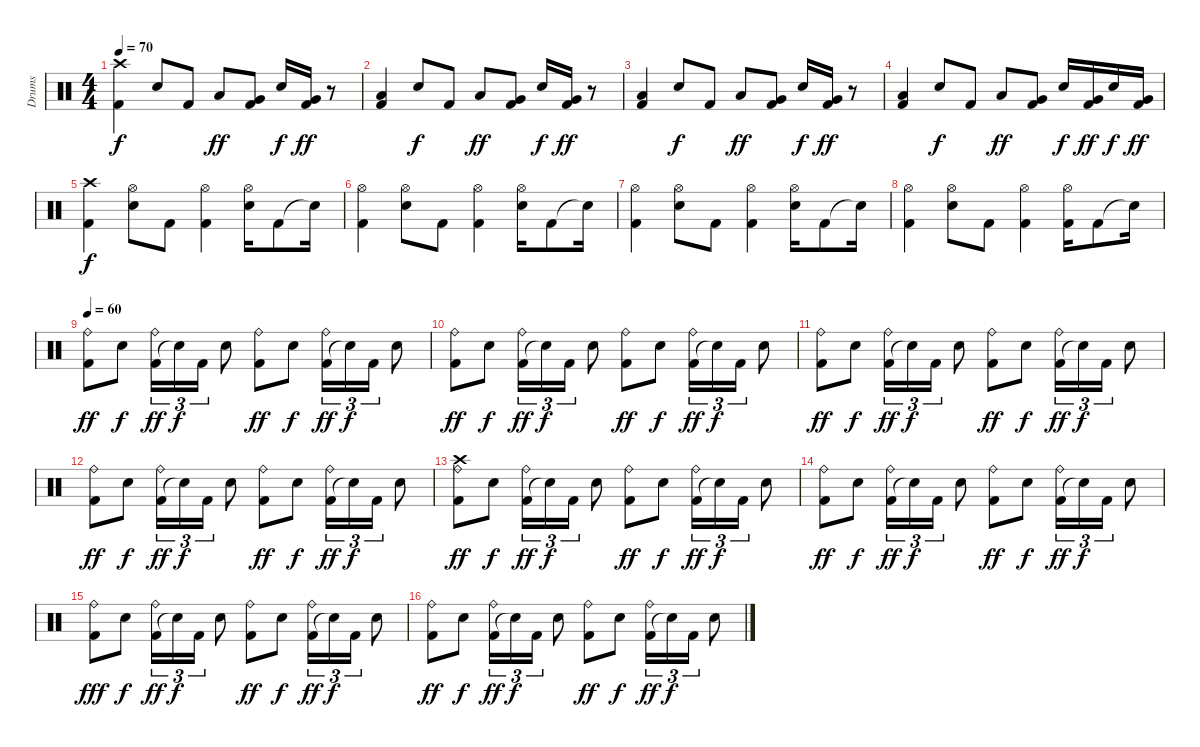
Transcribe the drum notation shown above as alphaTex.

\track ("Drums" "Drums") {instrument percussion}
\staff {score}
\articulation defaults
\ts (4 4)
\tempo 70
\clef neutral
\ks c
("Kick (hit) 2" "Crash high (hit)").4{dy f} "Electric Snare (hit)".8 "Kick (hit) 2".8 "Low Tom (hit)".8{dy ff} ("Kick (hit) 2" "Very Low Tom (hit)").8 "Electric Snare (hit)".16{dy f} ("Kick (hit) 2" "Very Low Tom (hit)").16{dy ff} r.8 |
("Kick (hit) 2" "Low Tom (hit)").4 "Electric Snare (hit)".8{dy f} "Kick (hit) 2".8 "Low Tom (hit)".8{dy ff} ("Kick (hit) 2" "Very Low Tom (hit)").8 "Electric Snare (hit)".16{dy f} ("Kick (hit) 2" "Very Low Tom (hit)").16{dy ff} r.8 |
("Kick (hit) 2" "Low Tom (hit)").4 "Electric Snare (hit)".8{dy f} "Kick (hit) 2".8 "Low Tom (hit)".8{dy ff} ("Kick (hit) 2" "Very Low Tom (hit)").8 "Electric Snare (hit)".16{dy f} ("Kick (hit) 2" "Very Low Tom (hit)").16{dy ff} r.8 |
("Kick (hit) 2" "Low Tom (hit)").4 "Electric Snare (hit)".8{dy f} "Kick (hit) 2".8 "Low Tom (hit)".8{dy ff} ("Kick (hit) 2" "Very Low Tom (hit)").8 "Electric Snare (hit)".16{dy f} ("Kick (hit) 2" "Very Low Tom (hit)").16{dy ff} "Electric Snare (hit)".16{dy f} ("Kick (hit) 2" "Very Low Tom (hit)").16{dy ff} |
("Kick (hit) 2" "Crash high (hit)").4{dy f} ("Electric Snare (hit)" "Hi-Hat (open)").8 "Kick (hit) 2".8 ("Kick (hit) 2" "Hi-Hat (open)").4 ("Electric Snare (hit)" "Hi-Hat (open)").16 "Kick (hit) 2".8 "Snare (hit)"{t}.16 |
("Kick (hit) 2" "Hi-Hat (open)").4 ("Electric Snare (hit)" "Hi-Hat (open)").8 "Kick (hit) 2".8 ("Kick (hit) 2" "Hi-Hat (open)").4 ("Electric Snare (hit)" "Hi-Hat (open)").16 "Kick (hit) 2".8 "Snare (hit)"{t}.16 |
("Kick (hit) 2" "Hi-Hat (open)").4 ("Electric Snare (hit)" "Hi-Hat (open)").8 "Kick (hit) 2".8 ("Kick (hit) 2" "Hi-Hat (open)").4 ("Electric Snare (hit)" "Hi-Hat (open)").16 "Kick (hit) 2".8 "Snare (hit)"{t}.16 |
("Kick (hit) 2" "Hi-Hat (open)").4 ("Electric Snare (hit)" "Hi-Hat (open)").8 "Kick (hit) 2".8 ("Kick (hit) 2" "Hi-Hat (open)").4 ("Kick (hit) 2" "Hi-Hat (open)").16 "Kick (hit) 2".8 "Snare (hit)"{t}.16 |
\tempo 60
("Kick (hit) 2" "Ride (bell)").8{dy ff} "Electric Snare (hit)".8{dy f} ("Kick (hit) 2" "Ride (bell)").16{tu (3 2) dy ff} "Snare (hit)"{t}.16{tu (3 2) dy f} "Kick (hit) 2".16{tu (3 2)} "Electric Snare (hit)".8 ("Kick (hit) 2" "Ride (bell)").8{dy ff} "Electric Snare (hit)".8{dy f} ("Kick (hit) 2" "Ride (bell)").16{tu (3 2) dy ff} "Snare (hit)"{t}.16{tu (3 2) dy f} "Kick (hit) 2".16{tu (3 2)} "Electric Snare (hit)".8 |
("Kick (hit) 2" "Ride (bell)").8{dy ff} "Electric Snare (hit)".8{dy f} ("Kick (hit) 2" "Ride (bell)").16{tu (3 2) dy ff} "Snare (hit)"{t}.16{tu (3 2) dy f} "Kick (hit) 2".16{tu (3 2)} "Electric Snare (hit)".8 ("Kick (hit) 2" "Ride (bell)").8{dy ff} "Electric Snare (hit)".8{dy f} ("Kick (hit) 2" "Ride (bell)").16{tu (3 2) dy ff} "Snare (hit)"{t}.16{tu (3 2) dy f} "Kick (hit) 2".16{tu (3 2)} "Electric Snare (hit)".8 |
("Kick (hit) 2" "Ride (bell)").8{dy ff} "Electric Snare (hit)".8{dy f} ("Kick (hit) 2" "Ride (bell)").16{tu (3 2) dy ff} "Snare (hit)"{t}.16{tu (3 2) dy f} "Kick (hit) 2".16{tu (3 2)} "Electric Snare (hit)".8 ("Kick (hit) 2" "Ride (bell)").8{dy ff} "Electric Snare (hit)".8{dy f} ("Kick (hit) 2" "Ride (bell)").16{tu (3 2) dy ff} "Snare (hit)"{t}.16{tu (3 2) dy f} "Kick (hit) 2".16{tu (3 2)} "Electric Snare (hit)".8 |
("Kick (hit) 2" "Ride (bell)").8{dy ff} "Electric Snare (hit)".8{dy f} ("Kick (hit) 2" "Ride (bell)").16{tu (3 2) dy ff} "Snare (hit)"{t}.16{tu (3 2) dy f} "Kick (hit) 2".16{tu (3 2)} "Electric Snare (hit)".8 ("Kick (hit) 2" "Ride (bell)").8{dy ff} "Electric Snare (hit)".8{dy f} ("Kick (hit) 2" "Ride (bell)").16{tu (3 2) dy ff} "Snare (hit)"{t}.16{tu (3 2) dy f} "Kick (hit) 2".16{tu (3 2)} "Electric Snare (hit)".8 |
("Kick (hit) 2" "Ride (bell)" "Crash high (hit)").8{dy ff} "Electric Snare (hit)".8{dy f} ("Kick (hit) 2" "Ride (bell)").16{tu (3 2) dy ff} "Snare (hit)"{t}.16{tu (3 2) dy f} "Kick (hit) 2".16{tu (3 2)} "Electric Snare (hit)".8 ("Kick (hit) 2" "Ride (bell)").8{dy ff} "Electric Snare (hit)".8{dy f} ("Kick (hit) 2" "Ride (bell)").16{tu (3 2) dy ff} "Snare (hit)"{t}.16{tu (3 2) dy f} "Kick (hit) 2".16{tu (3 2)} "Electric Snare (hit)".8 |
("Kick (hit) 2" "Ride (bell)").8{dy ff} "Electric Snare (hit)".8{dy f} ("Kick (hit) 2" "Ride (bell)").16{tu (3 2) dy ff} "Snare (hit)"{t}.16{tu (3 2) dy f} "Kick (hit) 2".16{tu (3 2)} "Electric Snare (hit)".8 ("Kick (hit) 2" "Ride (bell)").8{dy ff} "Electric Snare (hit)".8{dy f} ("Kick (hit) 2" "Ride (bell)").16{tu (3 2) dy ff} "Snare (hit)"{t}.16{tu (3 2) dy f} "Kick (hit) 2".16{tu (3 2)} "Electric Snare (hit)".8 |
("Kick (hit) 2" "Ride (bell)").8{dy fff} "Electric Snare (hit)".8{dy f} ("Kick (hit) 2" "Ride (bell)").16{tu (3 2) dy ff} "Snare (hit)"{t}.16{tu (3 2) dy f} "Kick (hit) 2".16{tu (3 2)} "Electric Snare (hit)".8 ("Kick (hit) 2" "Ride (bell)").8{dy ff} "Electric Snare (hit)".8{dy f} ("Kick (hit) 2" "Ride (bell)").16{tu (3 2) dy ff} "Snare (hit)"{t}.16{tu (3 2) dy f} "Kick (hit) 2".16{tu (3 2)} "Electric Snare (hit)".8 |
("Kick (hit) 2" "Ride (bell)").8{dy ff} "Electric Snare (hit)".8{dy f} ("Kick (hit) 2" "Ride (bell)").16{tu (3 2) dy ff} "Snare (hit)"{t}.16{tu (3 2) dy f} "Kick (hit) 2".16{tu (3 2)} "Electric Snare (hit)".8 ("Kick (hit) 2" "Ride (bell)").8{dy ff} "Electric Snare (hit)".8{dy f} ("Kick (hit) 2" "Ride (bell)").16{tu (3 2) dy ff} "Snare (hit)"{t}.16{tu (3 2) dy f} "Kick (hit) 2".16{tu (3 2)} "Electric Snare (hit)".8
